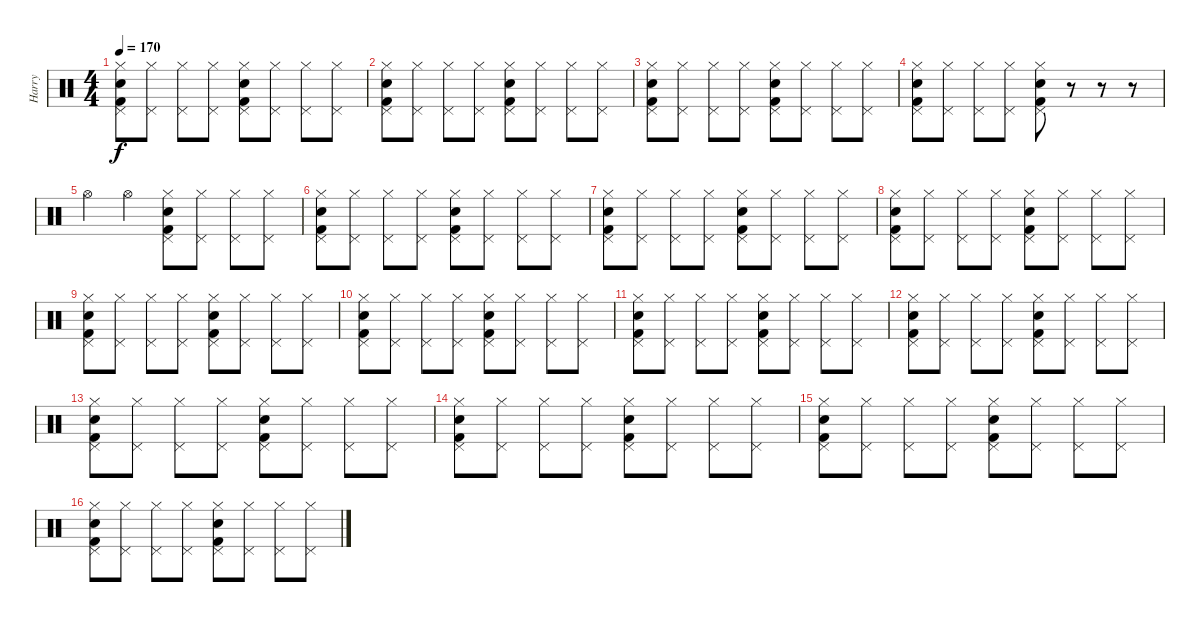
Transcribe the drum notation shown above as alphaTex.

\track ("Harry" "Harry") {instrument percussion}
\staff {score}
\articulation defaults
\ts (4 4)
\tempo 170
\clef neutral
\ks c
("Hi-Hat (closed)" "Pedal Hi-Hat (hit)" "Kick (hit) 2" "Snare (hit) 2").8{dy f} ("Hi-Hat (closed)" "Pedal Hi-Hat (hit)").8 ("Hi-Hat (closed)" "Pedal Hi-Hat (hit)").8 ("Hi-Hat (closed)" "Pedal Hi-Hat (hit)").8 ("Hi-Hat (closed)" "Pedal Hi-Hat (hit)" "Kick (hit) 2" "Snare (hit) 2").8 ("Hi-Hat (closed)" "Pedal Hi-Hat (hit)").8 ("Hi-Hat (closed)" "Pedal Hi-Hat (hit)").8 ("Hi-Hat (closed)" "Pedal Hi-Hat (hit)").8 |
("Hi-Hat (closed)" "Pedal Hi-Hat (hit)" "Kick (hit) 2" "Snare (hit) 2").8 ("Hi-Hat (closed)" "Pedal Hi-Hat (hit)").8 ("Hi-Hat (closed)" "Pedal Hi-Hat (hit)").8 ("Hi-Hat (closed)" "Pedal Hi-Hat (hit)").8 ("Hi-Hat (closed)" "Pedal Hi-Hat (hit)" "Kick (hit) 2" "Snare (hit) 2").8 ("Hi-Hat (closed)" "Pedal Hi-Hat (hit)").8 ("Hi-Hat (closed)" "Pedal Hi-Hat (hit)").8 ("Hi-Hat (closed)" "Pedal Hi-Hat (hit)").8 |
("Hi-Hat (closed)" "Pedal Hi-Hat (hit)" "Kick (hit) 2" "Snare (hit) 2").8 ("Hi-Hat (closed)" "Pedal Hi-Hat (hit)").8 ("Hi-Hat (closed)" "Pedal Hi-Hat (hit)").8 ("Hi-Hat (closed)" "Pedal Hi-Hat (hit)").8 ("Hi-Hat (closed)" "Pedal Hi-Hat (hit)" "Kick (hit) 2" "Snare (hit) 2").8 ("Hi-Hat (closed)" "Pedal Hi-Hat (hit)").8 ("Hi-Hat (closed)" "Pedal Hi-Hat (hit)").8 ("Hi-Hat (closed)" "Pedal Hi-Hat (hit)").8 |
("Hi-Hat (closed)" "Pedal Hi-Hat (hit)" "Kick (hit) 2" "Snare (hit) 2").8 ("Hi-Hat (closed)" "Pedal Hi-Hat (hit)").8 ("Hi-Hat (closed)" "Pedal Hi-Hat (hit)").8 ("Hi-Hat (closed)" "Pedal Hi-Hat (hit)").8 ("Hi-Hat (closed)" "Pedal Hi-Hat (hit)" "Kick (hit) 2" "Snare (hit) 2").8 r.8 r.8 r.8 |
"Hi-Hat (open)".4 "Hi-Hat (open)".4 ("Hi-Hat (closed)" "Pedal Hi-Hat (hit)" "Kick (hit) 2" "Snare (hit) 2").8 ("Hi-Hat (closed)" "Pedal Hi-Hat (hit)").8 ("Hi-Hat (closed)" "Pedal Hi-Hat (hit)").8 ("Hi-Hat (closed)" "Pedal Hi-Hat (hit)").8 |
("Hi-Hat (closed)" "Pedal Hi-Hat (hit)" "Kick (hit) 2" "Snare (hit) 2").8 ("Hi-Hat (closed)" "Pedal Hi-Hat (hit)").8 ("Hi-Hat (closed)" "Pedal Hi-Hat (hit)").8 ("Hi-Hat (closed)" "Pedal Hi-Hat (hit)").8 ("Hi-Hat (closed)" "Pedal Hi-Hat (hit)" "Kick (hit) 2" "Snare (hit) 2").8 ("Hi-Hat (closed)" "Pedal Hi-Hat (hit)").8 ("Hi-Hat (closed)" "Pedal Hi-Hat (hit)").8 ("Hi-Hat (closed)" "Pedal Hi-Hat (hit)").8 |
("Hi-Hat (closed)" "Pedal Hi-Hat (hit)" "Kick (hit) 2" "Snare (hit) 2").8 ("Hi-Hat (closed)" "Pedal Hi-Hat (hit)").8 ("Hi-Hat (closed)" "Pedal Hi-Hat (hit)").8 ("Hi-Hat (closed)" "Pedal Hi-Hat (hit)").8 ("Hi-Hat (closed)" "Pedal Hi-Hat (hit)" "Kick (hit) 2" "Snare (hit) 2").8 ("Hi-Hat (closed)" "Pedal Hi-Hat (hit)").8 ("Hi-Hat (closed)" "Pedal Hi-Hat (hit)").8 ("Hi-Hat (closed)" "Pedal Hi-Hat (hit)").8 |
("Hi-Hat (closed)" "Pedal Hi-Hat (hit)" "Kick (hit) 2" "Snare (hit) 2").8 ("Hi-Hat (closed)" "Pedal Hi-Hat (hit)").8 ("Hi-Hat (closed)" "Pedal Hi-Hat (hit)").8 ("Hi-Hat (closed)" "Pedal Hi-Hat (hit)").8 ("Hi-Hat (closed)" "Pedal Hi-Hat (hit)" "Kick (hit) 2" "Snare (hit) 2").8 ("Hi-Hat (closed)" "Pedal Hi-Hat (hit)").8 ("Hi-Hat (closed)" "Pedal Hi-Hat (hit)").8 ("Hi-Hat (closed)" "Pedal Hi-Hat (hit)").8 |
("Hi-Hat (closed)" "Pedal Hi-Hat (hit)" "Kick (hit) 2" "Snare (hit) 2").8 ("Hi-Hat (closed)" "Pedal Hi-Hat (hit)").8 ("Hi-Hat (closed)" "Pedal Hi-Hat (hit)").8 ("Hi-Hat (closed)" "Pedal Hi-Hat (hit)").8 ("Hi-Hat (closed)" "Pedal Hi-Hat (hit)" "Kick (hit) 2" "Snare (hit) 2").8 ("Hi-Hat (closed)" "Pedal Hi-Hat (hit)").8 ("Hi-Hat (closed)" "Pedal Hi-Hat (hit)").8 ("Hi-Hat (closed)" "Pedal Hi-Hat (hit)").8 |
("Hi-Hat (closed)" "Pedal Hi-Hat (hit)" "Kick (hit) 2" "Snare (hit) 2").8 ("Hi-Hat (closed)" "Pedal Hi-Hat (hit)").8 ("Hi-Hat (closed)" "Pedal Hi-Hat (hit)").8 ("Hi-Hat (closed)" "Pedal Hi-Hat (hit)").8 ("Hi-Hat (closed)" "Pedal Hi-Hat (hit)" "Kick (hit) 2" "Snare (hit) 2").8 ("Hi-Hat (closed)" "Pedal Hi-Hat (hit)").8 ("Hi-Hat (closed)" "Pedal Hi-Hat (hit)").8 ("Hi-Hat (closed)" "Pedal Hi-Hat (hit)").8 |
("Hi-Hat (closed)" "Pedal Hi-Hat (hit)" "Kick (hit) 2" "Snare (hit) 2").8 ("Hi-Hat (closed)" "Pedal Hi-Hat (hit)").8 ("Hi-Hat (closed)" "Pedal Hi-Hat (hit)").8 ("Hi-Hat (closed)" "Pedal Hi-Hat (hit)").8 ("Hi-Hat (closed)" "Pedal Hi-Hat (hit)" "Kick (hit) 2" "Snare (hit) 2").8 ("Hi-Hat (closed)" "Pedal Hi-Hat (hit)").8 ("Hi-Hat (closed)" "Pedal Hi-Hat (hit)").8 ("Hi-Hat (closed)" "Pedal Hi-Hat (hit)").8 |
("Hi-Hat (closed)" "Pedal Hi-Hat (hit)" "Kick (hit) 2" "Snare (hit) 2").8 ("Hi-Hat (closed)" "Pedal Hi-Hat (hit)").8 ("Hi-Hat (closed)" "Pedal Hi-Hat (hit)").8 ("Hi-Hat (closed)" "Pedal Hi-Hat (hit)").8 ("Hi-Hat (closed)" "Pedal Hi-Hat (hit)" "Kick (hit) 2" "Snare (hit) 2").8 ("Hi-Hat (closed)" "Pedal Hi-Hat (hit)").8 ("Hi-Hat (closed)" "Pedal Hi-Hat (hit)").8 ("Hi-Hat (closed)" "Pedal Hi-Hat (hit)").8 |
("Hi-Hat (closed)" "Pedal Hi-Hat (hit)" "Kick (hit) 2" "Snare (hit) 2").8 ("Hi-Hat (closed)" "Pedal Hi-Hat (hit)").8 ("Hi-Hat (closed)" "Pedal Hi-Hat (hit)").8 ("Hi-Hat (closed)" "Pedal Hi-Hat (hit)").8 ("Hi-Hat (closed)" "Pedal Hi-Hat (hit)" "Kick (hit) 2" "Snare (hit) 2").8 ("Hi-Hat (closed)" "Pedal Hi-Hat (hit)").8 ("Hi-Hat (closed)" "Pedal Hi-Hat (hit)").8 ("Hi-Hat (closed)" "Pedal Hi-Hat (hit)").8 |
("Hi-Hat (closed)" "Pedal Hi-Hat (hit)" "Kick (hit) 2" "Snare (hit) 2").8 ("Hi-Hat (closed)" "Pedal Hi-Hat (hit)").8 ("Hi-Hat (closed)" "Pedal Hi-Hat (hit)").8 ("Hi-Hat (closed)" "Pedal Hi-Hat (hit)").8 ("Hi-Hat (closed)" "Pedal Hi-Hat (hit)" "Kick (hit) 2" "Snare (hit) 2").8 ("Hi-Hat (closed)" "Pedal Hi-Hat (hit)").8 ("Hi-Hat (closed)" "Pedal Hi-Hat (hit)").8 ("Hi-Hat (closed)" "Pedal Hi-Hat (hit)").8 |
("Hi-Hat (closed)" "Pedal Hi-Hat (hit)" "Kick (hit) 2" "Snare (hit) 2").8 ("Hi-Hat (closed)" "Pedal Hi-Hat (hit)").8 ("Hi-Hat (closed)" "Pedal Hi-Hat (hit)").8 ("Hi-Hat (closed)" "Pedal Hi-Hat (hit)").8 ("Hi-Hat (closed)" "Pedal Hi-Hat (hit)" "Kick (hit) 2" "Snare (hit) 2").8 ("Hi-Hat (closed)" "Pedal Hi-Hat (hit)").8 ("Hi-Hat (closed)" "Pedal Hi-Hat (hit)").8 ("Hi-Hat (closed)" "Pedal Hi-Hat (hit)").8 |
("Hi-Hat (closed)" "Pedal Hi-Hat (hit)" "Kick (hit) 2" "Snare (hit) 2").8 ("Hi-Hat (closed)" "Pedal Hi-Hat (hit)").8 ("Hi-Hat (closed)" "Pedal Hi-Hat (hit)").8 ("Hi-Hat (closed)" "Pedal Hi-Hat (hit)").8 ("Hi-Hat (closed)" "Pedal Hi-Hat (hit)" "Kick (hit) 2" "Snare (hit) 2").8 ("Hi-Hat (closed)" "Pedal Hi-Hat (hit)").8 ("Hi-Hat (closed)" "Pedal Hi-Hat (hit)").8 ("Hi-Hat (closed)" "Pedal Hi-Hat (hit)").8
